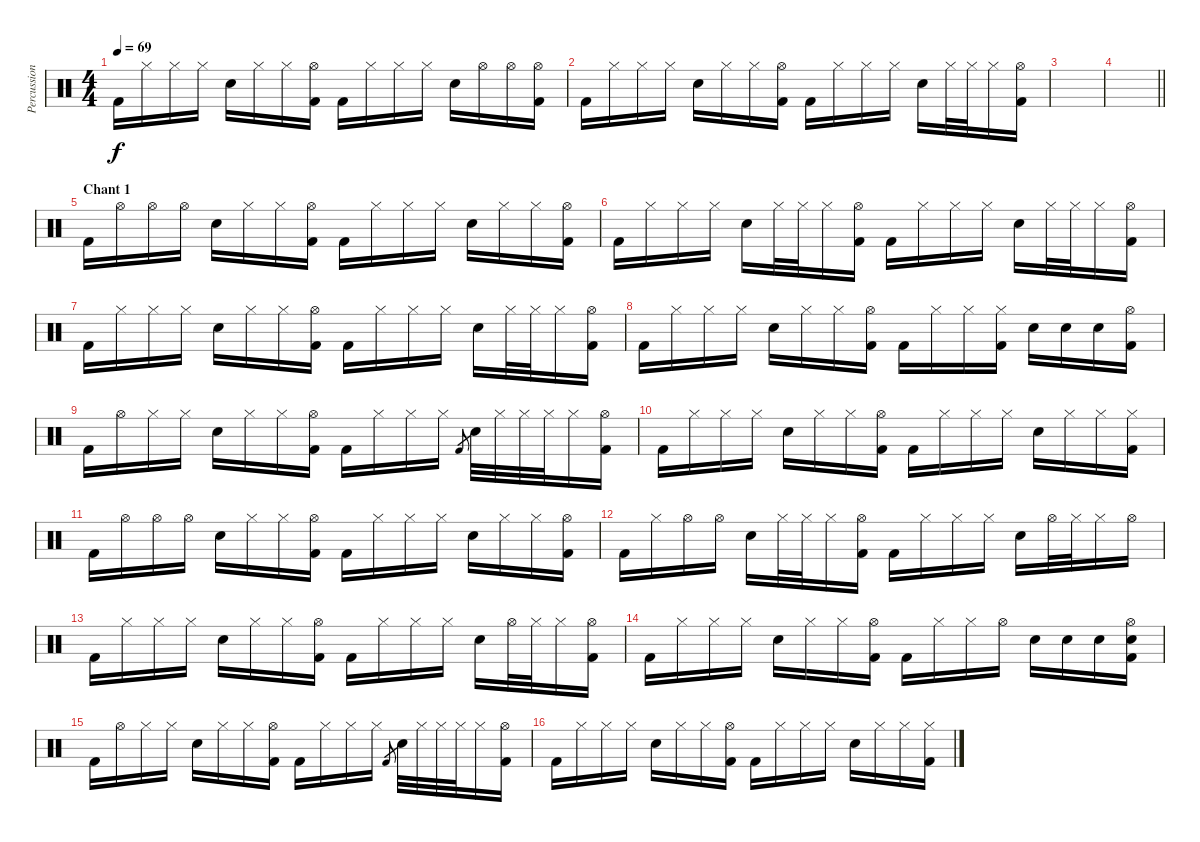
\track ("Percussions" "Percussion") {instrument percussion}
\staff {score}
\articulation defaults
\ts (4 4)
\tempo 69
\clef neutral
\ks c "Kick (hit) 2".16{dy f} "Hi-Hat (closed)".16 "Hi-Hat (closed)".16 "Hi-Hat (closed)".16 "Electric Snare (hit)".16 "Hi-Hat (closed)".16 "Hi-Hat (closed)".16
("Hi-Hat (open)" "Kick (hit) 2").16 "Kick (hit) 2".16 "Hi-Hat (closed)".16 "Hi-Hat (closed)".16 "Hi-Hat (closed)".16 "Electric Snare (hit)".16 "Hi-Hat (open)".16 "Hi-Hat (open)".16 ("Hi-Hat (open)" "Kick (hit) 2").16 |
"Kick (hit) 2".16 "Hi-Hat (closed)".16 "Hi-Hat (closed)".16 "Hi-Hat (closed)".16 "Electric Snare (hit)".16 "Hi-Hat (closed)".16 "Hi-Hat (closed)".16 ("Hi-Hat (open)" "Kick (hit) 2").16 "Kick (hit) 2".16 "Hi-Hat (closed)".16 "Hi-Hat (closed)".16 "Hi-Hat (closed)".16 "Electric Snare (hit)".16 "Hi-Hat (closed)".32 "Hi-Hat (closed)".32 "Hi-Hat (closed)".16 ("Hi-Hat (open)" "Kick (hit) 2").16 |
|
\barLineRight lightlight
|
\section ("" "Chant 1")
"Kick (hit) 2".16 "Hi-Hat (open)".16 "Hi-Hat (open)".16 "Hi-Hat (open)".16 "Electric Snare (hit)".16 "Hi-Hat (closed)".16 "Hi-Hat (closed)".16 ("Hi-Hat (open)" "Kick (hit) 2").16 "Kick (hit) 2".16 "Hi-Hat (closed)".16 "Hi-Hat (closed)".16 "Hi-Hat (closed)".16 "Electric Snare (hit)".16 "Hi-Hat (closed)".16 "Hi-Hat (closed)".16 ("Hi-Hat (open)" "Kick (hit) 2").16 |
"Kick (hit) 2".16 "Hi-Hat (closed)".16 "Hi-Hat (closed)".16 "Hi-Hat (closed)".16 "Electric Snare (hit)".16 "Hi-Hat (closed)".32 "Hi-Hat (closed)".32 "Hi-Hat (closed)".16 ("Hi-Hat (open)" "Kick (hit) 2").16 "Kick (hit) 2".16 "Hi-Hat (closed)".16 "Hi-Hat (closed)".16 "Hi-Hat (closed)".16 "Electric Snare (hit)".16 "Hi-Hat (closed)".32 "Hi-Hat (closed)".32 "Hi-Hat (closed)".16 ("Hi-Hat (open)" "Kick (hit) 2").16 |
"Kick (hit) 2".16 "Hi-Hat (closed)".16 "Hi-Hat (closed)".16 "Hi-Hat (closed)".16 "Electric Snare (hit)".16 "Hi-Hat (closed)".16 "Hi-Hat (closed)".16 ("Hi-Hat (open)" "Kick (hit) 2").16 "Kick (hit) 2".16 "Hi-Hat (closed)".16 "Hi-Hat (closed)".16 "Hi-Hat (closed)".16 "Electric Snare (hit)".16 "Hi-Hat (closed)".32 "Hi-Hat (closed)".32 "Hi-Hat (closed)".16 ("Hi-Hat (open)" "Kick (hit) 2").16 |
"Kick (hit) 2".16 "Hi-Hat (closed)".16 "Hi-Hat (closed)".16 "Hi-Hat (closed)".16 "Electric Snare (hit)".16 "Hi-Hat (closed)".16 "Hi-Hat (closed)".16 ("Hi-Hat (open)" "Kick (hit) 2").16 "Kick (hit) 2".16 "Hi-Hat (closed)".16 "Hi-Hat (closed)".16 ("Hi-Hat (closed)" "Kick (hit) 2").16 "Electric Snare (hit)".16 "Electric Snare (hit)".16 "Electric Snare (hit)".16 ("Hi-Hat (open)" "Kick (hit) 2").16 |
"Kick (hit) 2".16 "Hi-Hat (open)".16 "Hi-Hat (closed)".16 "Hi-Hat (closed)".16 "Electric Snare (hit)".16 "Hi-Hat (closed)".16 "Hi-Hat (closed)".16 ("Hi-Hat (open)" "Kick (hit) 2").16 "Kick (hit) 2".16 "Hi-Hat (closed)".16 "Hi-Hat (closed)".16 "Hi-Hat (closed)".16 "Kick (hit) 2".8{gr} "Electric Snare (hit)".32 "Hi-Hat (closed)".32 "Hi-Hat (closed)".32 "Hi-Hat (closed)".32 "Hi-Hat (closed)".16 ("Hi-Hat (open)" "Kick (hit) 2").16 |
"Kick (hit) 2".16 "Hi-Hat (closed)".16 "Hi-Hat (closed)".16 "Hi-Hat (closed)".16 "Electric Snare (hit)".16 "Hi-Hat (closed)".16 "Hi-Hat (closed)".16 ("Hi-Hat (open)" "Kick (hit) 2").16 "Kick (hit) 2".16 "Hi-Hat (closed)".16 "Hi-Hat (closed)".16 "Hi-Hat (closed)".16 "Electric Snare (hit)".16 "Hi-Hat (closed)".16 "Hi-Hat (closed)".16 ("Hi-Hat (closed)" "Kick (hit) 2").16 |
"Kick (hit) 2".16 "Hi-Hat (open)".16 "Hi-Hat (open)".16 "Hi-Hat (open)".16 "Electric Snare (hit)".16 "Hi-Hat (closed)".16 "Hi-Hat (closed)".16 ("Hi-Hat (open)" "Kick (hit) 2").16 "Kick (hit) 2".16 "Hi-Hat (closed)".16 "Hi-Hat (closed)".16 "Hi-Hat (closed)".16 "Electric Snare (hit)".16 "Hi-Hat (closed)".16 "Hi-Hat (closed)".16 ("Hi-Hat (open)" "Kick (hit) 2").16 |
"Kick (hit) 2".16 "Hi-Hat (closed)".16 "Hi-Hat (open)".16 "Hi-Hat (open)".16 "Electric Snare (hit)".16 "Hi-Hat (closed)".32 "Hi-Hat (closed)".32 "Hi-Hat (closed)".16 ("Hi-Hat (open)" "Kick (hit) 2").16 "Kick (hit) 2".16 "Hi-Hat (closed)".16 "Hi-Hat (closed)".16 "Hi-Hat (closed)".16 "Electric Snare (hit)".16 "Hi-Hat (open)".32 "Hi-Hat (closed)".32 "Hi-Hat (closed)".16 "Hi-Hat (open)".16 |
"Kick (hit) 2".16 "Hi-Hat (closed)".16 "Hi-Hat (closed)".16 "Hi-Hat (closed)".16 "Electric Snare (hit)".16 "Hi-Hat (closed)".16 "Hi-Hat (closed)".16 ("Hi-Hat (open)" "Kick (hit) 2").16 "Kick (hit) 2".16 "Hi-Hat (closed)".16 "Hi-Hat (closed)".16 "Hi-Hat (closed)".16 "Electric Snare (hit)".16 "Hi-Hat (open)".32 "Hi-Hat (closed)".32 "Hi-Hat (closed)".16 ("Hi-Hat (open)" "Kick (hit) 2").16 |
"Kick (hit) 2".16 "Hi-Hat (closed)".16 "Hi-Hat (closed)".16 "Hi-Hat (closed)".16 "Electric Snare (hit)".16 "Hi-Hat (closed)".16 "Hi-Hat (closed)".16 ("Hi-Hat (open)" "Kick (hit) 2").16 "Kick (hit) 2".16 "Hi-Hat (closed)".16 "Hi-Hat (closed)".16 "Hi-Hat (open)".16 "Electric Snare (hit)".16 "Electric Snare (hit)".16 "Electric Snare (hit)".16 ("Hi-Hat (open)" "Electric Snare (hit)" "Kick (hit) 2").16 |
"Kick (hit) 2".16 "Hi-Hat (open)".16 "Hi-Hat (closed)".16 "Hi-Hat (closed)".16 "Electric Snare (hit)".16 "Hi-Hat (closed)".16 "Hi-Hat (closed)".16 ("Hi-Hat (open)" "Kick (hit) 2").16 "Kick (hit) 2".16 "Hi-Hat (closed)".16 "Hi-Hat (closed)".16 "Hi-Hat (closed)".16 "Kick (hit) 2".8{gr} "Electric Snare (hit)".32 "Hi-Hat (closed)".32 "Hi-Hat (closed)".32 "Hi-Hat (closed)".32 "Hi-Hat (closed)".16 ("Hi-Hat (open)" "Kick (hit) 2").16 |
"Kick (hit) 2".16 "Hi-Hat (closed)".16 "Hi-Hat (closed)".16 "Hi-Hat (closed)".16 "Electric Snare (hit)".16 "Hi-Hat (closed)".16 "Hi-Hat (closed)".16 ("Hi-Hat (open)" "Kick (hit) 2").16 "Kick (hit) 2".16 "Hi-Hat (closed)".16 "Hi-Hat (closed)".16 "Hi-Hat (closed)".16 "Electric Snare (hit)".16 "Hi-Hat (closed)".16 "Hi-Hat (closed)".16 ("Hi-Hat (closed)" "Kick (hit) 2").16
